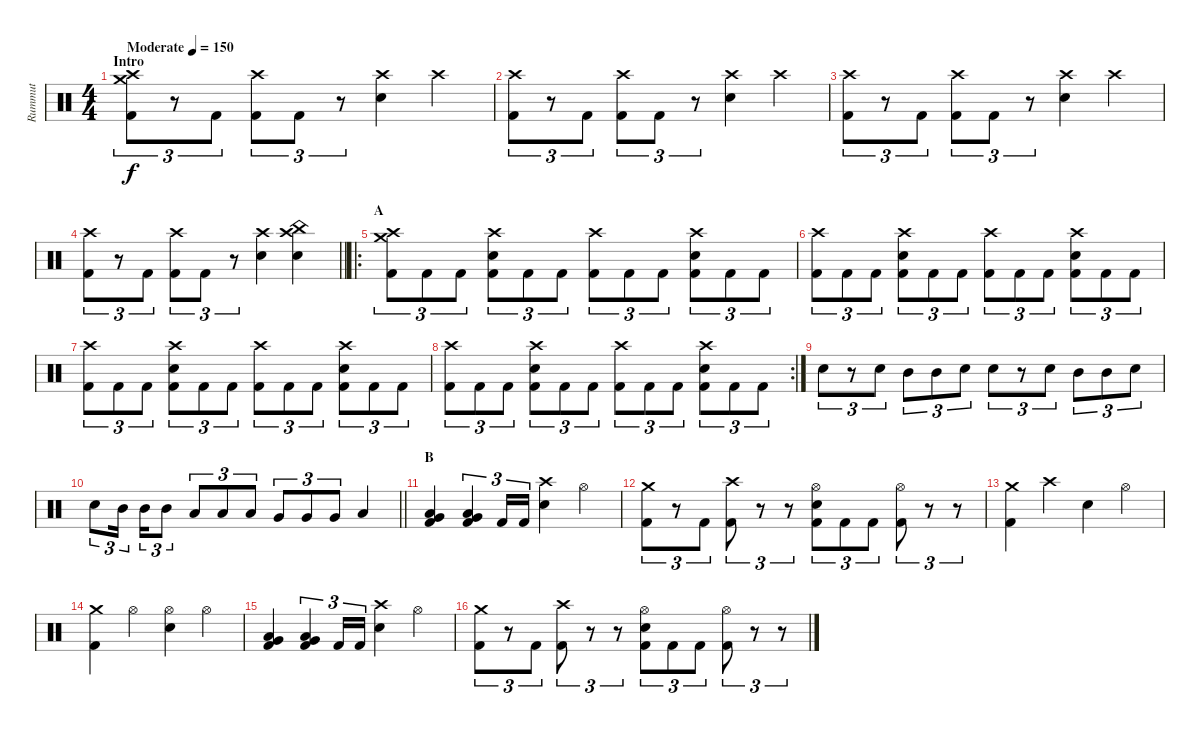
\track ("Rummut" "Rummut") {mute instrument percussion}
\staff {score}
\articulation defaults
\ts (4 4)
\section ("" "Intro")
\tempo (150 "Moderate")
\clef neutral
\ks c
("Crash medium (hit)" "Crash high (hit)" "Kick (hit) 2").8{tu (3 2) dy f} r.8{tu (3 2)} "Kick (hit) 2".8{tu (3 2)} ("Crash high (hit)" "Kick (hit) 2").8{tu (3 2)} "Kick (hit) 2".8{tu (3 2)} r.8{tu (3 2)} ("Crash high (hit)" "Electric Snare (hit)").4 "Crash high (hit)".4 |
("Crash high (hit)" "Kick (hit) 2").8{tu (3 2)} r.8{tu (3 2)} "Kick (hit) 2".8{tu (3 2)} ("Crash high (hit)" "Kick (hit) 2").8{tu (3 2)} "Kick (hit) 2".8{tu (3 2)} r.8{tu (3 2)} ("Crash high (hit)" "Electric Snare (hit)").4 "Crash high (hit)".4 |
("Crash high (hit)" "Kick (hit) 2").8{tu (3 2)} r.8{tu (3 2)} "Kick (hit) 2".8{tu (3 2)} ("Crash high (hit)" "Kick (hit) 2").8{tu (3 2)} "Kick (hit) 2".8{tu (3 2)} r.8{tu (3 2)} ("Crash high (hit)" "Electric Snare (hit)").4 "Crash high (hit)".4 |
\barLineRight lightlight
("Crash high (hit)" "Kick (hit) 2").8{tu (3 2)} r.8{tu (3 2)} "Kick (hit) 2".8{tu (3 2)} ("Crash high (hit)" "Kick (hit) 2").8{tu (3 2)} "Kick (hit) 2".8{tu (3 2)} r.8{tu (3 2)} ("Crash high (hit)" "Electric Snare (hit)").4 ("China (hit)" "Crash high (hit)" "Electric Snare (hit)").4 |
\ro
\section ("" "A")
("Crash medium (hit)" "Crash high (hit)" "Kick (hit) 2").8{tu (3 2)} "Kick (hit) 2".8{tu (3 2)} "Kick (hit) 2".8{tu (3 2)} ("Crash high (hit)" "Electric Snare (hit)" "Kick (hit) 2").8{tu (3 2)} "Kick (hit) 2".8{tu (3 2)} "Kick (hit) 2".8{tu (3 2)} ("Crash high (hit)" "Kick (hit) 2").8{tu (3 2)} "Kick (hit) 2".8{tu (3 2)} "Kick (hit) 2".8{tu (3 2)} ("Crash high (hit)" "Electric Snare (hit)" "Kick (hit) 2").8{tu (3 2)} "Kick (hit) 2".8{tu (3 2)} "Kick (hit) 2".8{tu (3 2)} |
("Crash high (hit)" "Kick (hit) 2").8{tu (3 2)} "Kick (hit) 2".8{tu (3 2)} "Kick (hit) 2".8{tu (3 2)} ("Crash high (hit)" "Electric Snare (hit)" "Kick (hit) 2").8{tu (3 2)} "Kick (hit) 2".8{tu (3 2)} "Kick (hit) 2".8{tu (3 2)} ("Crash high (hit)" "Kick (hit) 2").8{tu (3 2)} "Kick (hit) 2".8{tu (3 2)} "Kick (hit) 2".8{tu (3 2)} ("Crash high (hit)" "Electric Snare (hit)" "Kick (hit) 2").8{tu (3 2)} "Kick (hit) 2".8{tu (3 2)} "Kick (hit) 2".8{tu (3 2)} |
("Crash high (hit)" "Kick (hit) 2").8{tu (3 2)} "Kick (hit) 2".8{tu (3 2)} "Kick (hit) 2".8{tu (3 2)} ("Crash high (hit)" "Electric Snare (hit)" "Kick (hit) 2").8{tu (3 2)} "Kick (hit) 2".8{tu (3 2)} "Kick (hit) 2".8{tu (3 2)} ("Crash high (hit)" "Kick (hit) 2").8{tu (3 2)} "Kick (hit) 2".8{tu (3 2)} "Kick (hit) 2".8{tu (3 2)} ("Crash high (hit)" "Electric Snare (hit)" "Kick (hit) 2").8{tu (3 2)} "Kick (hit) 2".8{tu (3 2)} "Kick (hit) 2".8{tu (3 2)} |
\rc 2
("Crash high (hit)" "Kick (hit) 2").8{tu (3 2)} "Kick (hit) 2".8{tu (3 2)} "Kick (hit) 2".8{tu (3 2)} ("Crash high (hit)" "Electric Snare (hit)" "Kick (hit) 2").8{tu (3 2)} "Kick (hit) 2".8{tu (3 2)} "Kick (hit) 2".8{tu (3 2)} ("Crash high (hit)" "Kick (hit) 2").8{tu (3 2)} "Kick (hit) 2".8{tu (3 2)} "Kick (hit) 2".8{tu (3 2)} ("Crash high (hit)" "Electric Snare (hit)" "Kick (hit) 2").8{tu (3 2)} "Kick (hit) 2".8{tu (3 2)} "Kick (hit) 2".8{tu (3 2)} |
"Electric Snare (hit)".8{tu (3 2)} r.8{tu (3 2)} "Electric Snare (hit)".8{tu (3 2)} "Mid Tom (hit)".8{tu (3 2)} "Mid Tom (hit)".8{tu (3 2)} "Electric Snare (hit)".8{tu (3 2)} "Electric Snare (hit)".8{tu (3 2)} r.8{tu (3 2)} "Electric Snare (hit)".8{tu (3 2)} "Mid Tom (hit)".8{tu (3 2)} "Mid Tom (hit)".8{tu (3 2)} "Electric Snare (hit)".8{tu (3 2)} |
\barLineRight lightlight "Electric Snare (hit)".8{tu (3 2)} "Mid Tom (hit)".16{tu (3 2) beam splitsecondary} "Mid Tom (hit)".16{tu (3 2)} "Mid Tom (hit)".8{tu (3 2)} "Low Tom (hit)".8{tu (3 2)} "Low Tom (hit)".8{tu (3 2)} "Low Tom (hit)".8{tu (3 2)} "Very Low Tom (hit)".8{tu (3 2)} "Very Low Tom (hit)".8{tu (3 2)} "Very Low Tom (hit)".8{tu (3 2)} "Low Floor Tom (hit)".4
|
\section ("" "B")
("Low Floor Tom (hit)" "Very Low Tom (hit)" "Kick (hit) 2").4 ("Low Floor Tom (hit)" "Very Low Tom (hit)" "Kick (hit) 2").4{tu (3 2)} "Kick (hit) 2".16{tu (3 2)} "Kick (hit) 2".16{tu (3 2)} ("Crash high (hit)" "Electric Snare (hit)").4 "Hi-Hat (open)".4 |
("Crash medium (hit)" "Kick (hit) 2").8{tu (3 2)} r.8{tu (3 2)} "Kick (hit) 2".8{tu (3 2)} ("Crash high (hit)" "Kick (hit) 2").8{tu (3 2)} r.8{tu (3 2)} r.8{tu (3 2)} ("Hi-Hat (open)" "Electric Snare (hit)" "Kick (hit) 2").8{tu (3 2)} "Kick (hit) 2".8{tu (3 2)} "Kick (hit) 2".8{tu (3 2)} ("Hi-Hat (open)" "Kick (hit) 2").8{tu (3 2)} r.8{tu (3 2)} r.8{tu (3 2)} |
("Crash medium (hit)" "Kick (hit) 2").4 "Crash high (hit)".4 "Electric Snare (hit)".4 "Hi-Hat (open)".4 |
("Crash medium (hit)" "Kick (hit) 2").4 "Hi-Hat (open)".4 ("Hi-Hat (open)" "Electric Snare (hit)").4 "Hi-Hat (open)".4 |
("Low Floor Tom (hit)" "Very Low Tom (hit)" "Kick (hit) 2").4 ("Low Floor Tom (hit)" "Very Low Tom (hit)" "Kick (hit) 2").4{tu (3 2)} "Kick (hit) 2".16{tu (3 2)} "Kick (hit) 2".16{tu (3 2)} ("Crash high (hit)" "Electric Snare (hit)").4 "Hi-Hat (open)".4 |
("Crash medium (hit)" "Kick (hit) 2").8{tu (3 2)} r.8{tu (3 2)} "Kick (hit) 2".8{tu (3 2)} ("Crash high (hit)" "Kick (hit) 2").8{tu (3 2)} r.8{tu (3 2)} r.8{tu (3 2)} ("Hi-Hat (open)" "Electric Snare (hit)" "Kick (hit) 2").8{tu (3 2)} "Kick (hit) 2".8{tu (3 2)} "Kick (hit) 2".8{tu (3 2)} ("Hi-Hat (open)" "Kick (hit) 2").8{tu (3 2)} r.8{tu (3 2)} r.8{tu (3 2)}
